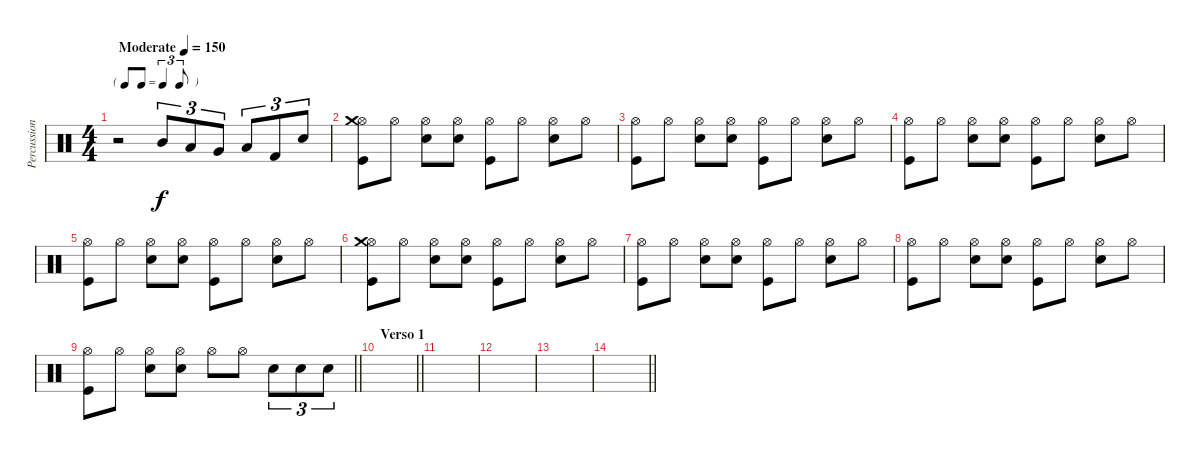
\track ("Percussion" "Percussion") {instrument percussion}
\staff {score}
\articulation defaults
\ts (4 4)
\tf triplet8th
\tempo (150 "Moderate")
\clef neutral
\ks c
r.2{dy f} "Mid Tom (hit)".8{tu (3 2)} "Low Tom (hit)".8{tu (3 2)} "Very Low Tom (hit)".8{tu (3 2)} "Low Floor Tom (hit)".8{tu (3 2)} "Kick (hit) 2".8{tu (3 2)} "Snare (hit) 2".8{tu (3 2)} |
("Hi-Hat (open)" "Crash medium (hit)" "Kick (hit)").8 "Hi-Hat (open)".8 ("Hi-Hat (open)" "Snare (hit) 2").8 ("Hi-Hat (open)" "Snare (hit) 2").8 ("Hi-Hat (open)" "Kick (hit)").8 "Hi-Hat (open)".8 ("Hi-Hat (open)" "Snare (hit) 2").8 "Hi-Hat (open)".8 |
("Hi-Hat (open)" "Kick (hit)").8 "Hi-Hat (open)".8 ("Hi-Hat (open)" "Snare (hit) 2").8 ("Hi-Hat (open)" "Snare (hit) 2").8 ("Hi-Hat (open)" "Kick (hit)").8 "Hi-Hat (open)".8 ("Hi-Hat (open)" "Snare (hit) 2").8 "Hi-Hat (open)".8 |
("Hi-Hat (open)" "Kick (hit)").8 "Hi-Hat (open)".8 ("Hi-Hat (open)" "Snare (hit) 2").8 ("Hi-Hat (open)" "Snare (hit) 2").8 ("Hi-Hat (open)" "Kick (hit)").8 "Hi-Hat (open)".8 ("Hi-Hat (open)" "Snare (hit) 2").8 "Hi-Hat (open)".8 |
("Hi-Hat (open)" "Kick (hit)").8 "Hi-Hat (open)".8 ("Hi-Hat (open)" "Snare (hit) 2").8 ("Hi-Hat (open)" "Snare (hit) 2").8 ("Hi-Hat (open)" "Kick (hit)").8 "Hi-Hat (open)".8 ("Hi-Hat (open)" "Snare (hit) 2").8 "Hi-Hat (open)".8 |
("Hi-Hat (open)" "Crash medium (hit)" "Kick (hit)").8 "Hi-Hat (open)".8 ("Hi-Hat (open)" "Snare (hit) 2").8 ("Hi-Hat (open)" "Snare (hit) 2").8 ("Hi-Hat (open)" "Kick (hit)").8 "Hi-Hat (open)".8 ("Hi-Hat (open)" "Snare (hit) 2").8 "Hi-Hat (open)".8 |
("Hi-Hat (open)" "Kick (hit)").8 "Hi-Hat (open)".8 ("Hi-Hat (open)" "Snare (hit) 2").8 ("Hi-Hat (open)" "Snare (hit) 2").8 ("Hi-Hat (open)" "Kick (hit)").8 "Hi-Hat (open)".8 ("Hi-Hat (open)" "Snare (hit) 2").8 "Hi-Hat (open)".8 |
("Hi-Hat (open)" "Kick (hit)").8 "Hi-Hat (open)".8 ("Hi-Hat (open)" "Snare (hit) 2").8 ("Hi-Hat (open)" "Snare (hit) 2").8 ("Hi-Hat (open)" "Kick (hit)").8 "Hi-Hat (open)".8 ("Hi-Hat (open)" "Snare (hit) 2").8 "Hi-Hat (open)".8 |
\barLineRight lightlight
("Hi-Hat (open)" "Kick (hit)").8 "Hi-Hat (open)".8 ("Hi-Hat (open)" "Snare (hit) 2").8 ("Hi-Hat (open)" "Snare (hit) 2").8 "Hi-Hat (open)".8 "Hi-Hat (open)".8 "Snare (hit) 2".8{tu (3 2)} "Snare (hit) 2".8{tu (3 2)} "Snare (hit) 2".8{tu (3 2)} |
\section ("" "Verso 1")
\barLineRight lightlight
|
|
|
|
\barLineRight lightlight
